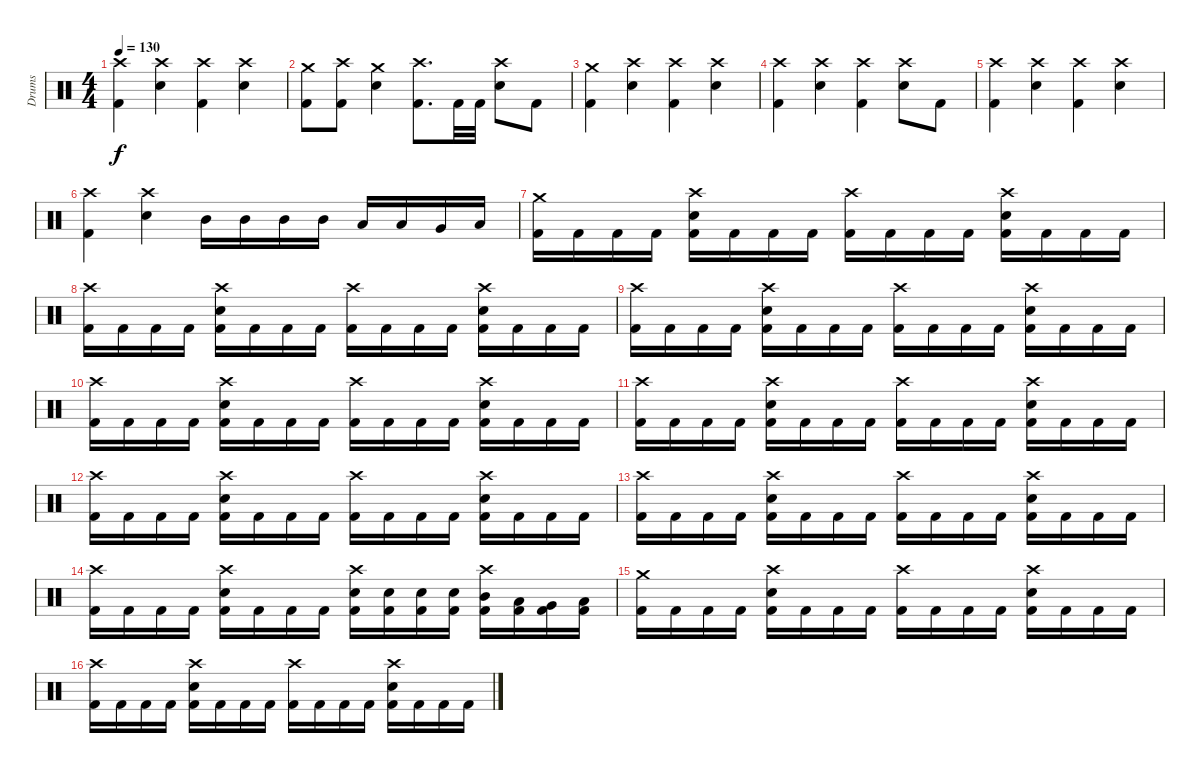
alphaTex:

\track ("Drums" "Drums") {instrument percussion}
\staff {score}
\articulation defaults
\ts (4 4)
\tempo 130
\clef neutral
\ks c
("Crash high (hit)" "Kick (hit) 2").4{dy f} ("Crash high (hit)" "Electric Snare (hit)").4 ("Crash high (hit)" "Kick (hit) 2").4 ("Crash high (hit)" "Electric Snare (hit)").4 |
("Crash medium (hit)" "Kick (hit) 2").8 ("Crash high (hit)" "Kick (hit) 2").8 ("Crash medium (hit)" "Electric Snare (hit)").4 ("Crash high (hit)" "Kick (hit) 2").8{d} "Kick (hit) 2".32 "Kick (hit) 2".32 ("Crash high (hit)" "Electric Snare (hit)").8 "Kick (hit) 2".8 |
("Crash medium (hit)" "Kick (hit) 2").4 ("Crash high (hit)" "Electric Snare (hit)").4 ("Crash high (hit)" "Kick (hit) 2").4 ("Crash high (hit)" "Electric Snare (hit)").4 |
("Crash high (hit)" "Kick (hit) 2").4 ("Crash high (hit)" "Electric Snare (hit)").4 ("Crash high (hit)" "Kick (hit) 2").4 ("Crash high (hit)" "Electric Snare (hit)").8 "Kick (hit) 2".8 |
("Crash high (hit)" "Kick (hit) 2").4 ("Crash high (hit)" "Electric Snare (hit)").4 ("Crash high (hit)" "Kick (hit) 2").4 ("Crash high (hit)" "Electric Snare (hit)").4 |
("Crash high (hit)" "Kick (hit) 2").4 ("Crash high (hit)" "Electric Snare (hit)").4 "Mid Tom (hit)".16 "Mid Tom (hit)".16 "Mid Tom (hit)".16 "Mid Tom (hit)".16 "Low Tom (hit)".16 "Low Tom (hit)".16 "Very Low Tom (hit)".16 "Low Floor Tom (hit)".16 |
("Crash medium (hit)" "Kick (hit) 2").16 "Kick (hit) 2".16 "Kick (hit) 2".16 "Kick (hit) 2".16 ("Crash high (hit)" "Electric Snare (hit)" "Kick (hit) 2").16 "Kick (hit) 2".16 "Kick (hit) 2".16 "Kick (hit) 2".16 ("Crash high (hit)" "Kick (hit) 2").16 "Kick (hit) 2".16 "Kick (hit) 2".16 "Kick (hit) 2".16 ("Crash high (hit)" "Electric Snare (hit)" "Kick (hit) 2").16 "Kick (hit) 2".16 "Kick (hit) 2".16 "Kick (hit) 2".16 |
("Crash high (hit)" "Kick (hit) 2").16 "Kick (hit) 2".16 "Kick (hit) 2".16 "Kick (hit) 2".16 ("Crash high (hit)" "Electric Snare (hit)" "Kick (hit) 2").16 "Kick (hit) 2".16 "Kick (hit) 2".16 "Kick (hit) 2".16 ("Crash high (hit)" "Kick (hit) 2").16 "Kick (hit) 2".16 "Kick (hit) 2".16 "Kick (hit) 2".16 ("Crash high (hit)" "Electric Snare (hit)" "Kick (hit) 2").16 "Kick (hit) 2".16 "Kick (hit) 2".16 "Kick (hit) 2".16 |
("Crash high (hit)" "Kick (hit) 2").16 "Kick (hit) 2".16 "Kick (hit) 2".16 "Kick (hit) 2".16 ("Crash high (hit)" "Electric Snare (hit)" "Kick (hit) 2").16 "Kick (hit) 2".16 "Kick (hit) 2".16 "Kick (hit) 2".16 ("Crash high (hit)" "Kick (hit) 2").16 "Kick (hit) 2".16 "Kick (hit) 2".16 "Kick (hit) 2".16 ("Crash high (hit)" "Electric Snare (hit)" "Kick (hit) 2").16 "Kick (hit) 2".16 "Kick (hit) 2".16 "Kick (hit) 2".16 |
("Crash high (hit)" "Kick (hit) 2").16 "Kick (hit) 2".16 "Kick (hit) 2".16 "Kick (hit) 2".16 ("Crash high (hit)" "Electric Snare (hit)" "Kick (hit) 2").16 "Kick (hit) 2".16 "Kick (hit) 2".16 "Kick (hit) 2".16 ("Crash high (hit)" "Kick (hit) 2").16 "Kick (hit) 2".16 "Kick (hit) 2".16 "Kick (hit) 2".16 ("Crash high (hit)" "Electric Snare (hit)" "Kick (hit) 2").16 "Kick (hit) 2".16 "Kick (hit) 2".16 "Kick (hit) 2".16 |
("Crash high (hit)" "Kick (hit) 2").16 "Kick (hit) 2".16 "Kick (hit) 2".16 "Kick (hit) 2".16 ("Crash high (hit)" "Electric Snare (hit)" "Kick (hit) 2").16 "Kick (hit) 2".16 "Kick (hit) 2".16 "Kick (hit) 2".16 ("Crash high (hit)" "Kick (hit) 2").16 "Kick (hit) 2".16 "Kick (hit) 2".16 "Kick (hit) 2".16 ("Crash high (hit)" "Electric Snare (hit)" "Kick (hit) 2").16 "Kick (hit) 2".16 "Kick (hit) 2".16 "Kick (hit) 2".16 |
("Crash high (hit)" "Kick (hit) 2").16 "Kick (hit) 2".16 "Kick (hit) 2".16 "Kick (hit) 2".16 ("Crash high (hit)" "Electric Snare (hit)" "Kick (hit) 2").16 "Kick (hit) 2".16 "Kick (hit) 2".16 "Kick (hit) 2".16 ("Crash high (hit)" "Kick (hit) 2").16 "Kick (hit) 2".16 "Kick (hit) 2".16 "Kick (hit) 2".16 ("Crash high (hit)" "Electric Snare (hit)" "Kick (hit) 2").16 "Kick (hit) 2".16 "Kick (hit) 2".16 "Kick (hit) 2".16 |
("Crash high (hit)" "Kick (hit) 2").16 "Kick (hit) 2".16 "Kick (hit) 2".16 "Kick (hit) 2".16 ("Crash high (hit)" "Electric Snare (hit)" "Kick (hit) 2").16 "Kick (hit) 2".16 "Kick (hit) 2".16 "Kick (hit) 2".16 ("Crash high (hit)" "Kick (hit) 2").16 "Kick (hit) 2".16 "Kick (hit) 2".16 "Kick (hit) 2".16 ("Crash high (hit)" "Electric Snare (hit)" "Kick (hit) 2").16 "Kick (hit) 2".16 "Kick (hit) 2".16 "Kick (hit) 2".16 |
("Crash high (hit)" "Kick (hit) 2").16 "Kick (hit) 2".16 "Kick (hit) 2".16 "Kick (hit) 2".16 ("Crash high (hit)" "Electric Snare (hit)" "Kick (hit) 2").16 "Kick (hit) 2".16 "Kick (hit) 2".16 "Kick (hit) 2".16 ("Crash high (hit)" "Electric Snare (hit)" "Kick (hit) 2").16 ("Electric Snare (hit)" "Kick (hit) 2").16 ("Electric Snare (hit)" "Kick (hit) 2").16 ("Electric Snare (hit)" "Kick (hit) 2").16 ("Crash high (hit)" "Mid Tom (hit)" "Kick (hit) 2").16 ("Low Tom (hit)" "Kick (hit) 2").16 ("Very Low Tom (hit)" "Kick (hit) 2").16 ("Low Floor Tom (hit)" "Kick (hit) 2").16 |
("Crash medium (hit)" "Kick (hit) 2").16 "Kick (hit) 2".16 "Kick (hit) 2".16 "Kick (hit) 2".16 ("Crash high (hit)" "Electric Snare (hit)" "Kick (hit) 2").16 "Kick (hit) 2".16 "Kick (hit) 2".16 "Kick (hit) 2".16 ("Crash high (hit)" "Kick (hit) 2").16 "Kick (hit) 2".16 "Kick (hit) 2".16 "Kick (hit) 2".16 ("Crash high (hit)" "Electric Snare (hit)" "Kick (hit) 2").16 "Kick (hit) 2".16 "Kick (hit) 2".16 "Kick (hit) 2".16 |
("Crash high (hit)" "Kick (hit) 2").16 "Kick (hit) 2".16 "Kick (hit) 2".16 "Kick (hit) 2".16 ("Crash high (hit)" "Electric Snare (hit)" "Kick (hit) 2").16 "Kick (hit) 2".16 "Kick (hit) 2".16 "Kick (hit) 2".16 ("Crash high (hit)" "Kick (hit) 2").16 "Kick (hit) 2".16 "Kick (hit) 2".16 "Kick (hit) 2".16 ("Crash high (hit)" "Electric Snare (hit)" "Kick (hit) 2").16 "Kick (hit) 2".16 "Kick (hit) 2".16 "Kick (hit) 2".16
